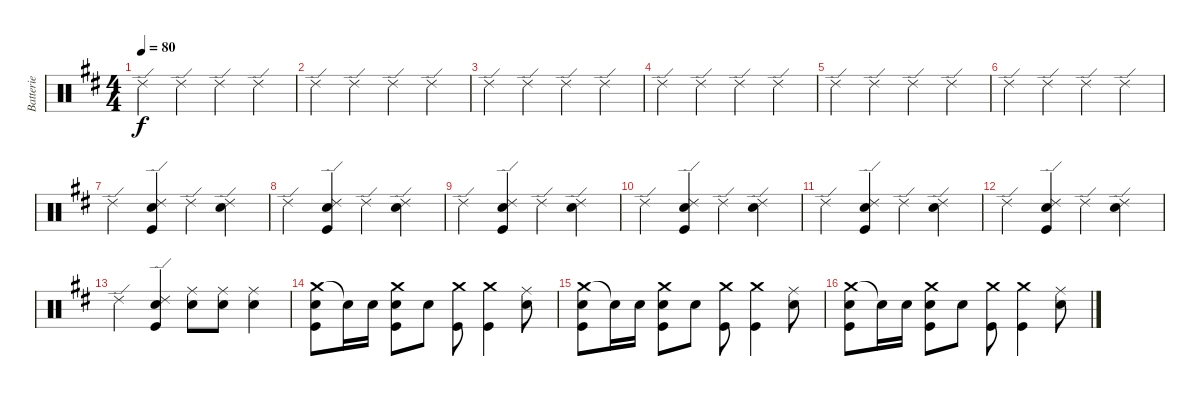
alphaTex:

\track ("Batterie" "Batterie") {instrument percussion}
\staff {score}
\articulation defaults
\ts (4 4)
\tempo 80
\clef neutral
\ks d "Ride (edge) 2".4{dy f} "Ride (edge) 2".4 "Ride (edge) 2".4 "Ride (edge) 2".4
|
"Ride (edge) 2".4 "Ride (edge) 2".4 "Ride (edge) 2".4 "Ride (edge) 2".4 |
"Ride (edge) 2".4 "Ride (edge) 2".4 "Ride (edge) 2".4 "Ride (edge) 2".4 |
"Ride (edge) 2".4 "Ride (edge) 2".4 "Ride (edge) 2".4 "Ride (edge) 2".4 |
"Ride (edge) 2".4 "Ride (edge) 2".4 "Ride (edge) 2".4 "Ride (edge) 2".4 |
"Ride (edge) 2".4 "Ride (edge) 2".4 "Ride (edge) 2".4 "Ride (edge) 2".4 |
"Ride (edge) 2".4 ("Ride (edge) 2" "Electric Snare (hit)" "Kick (hit)").4 "Ride (edge) 2".4 ("Ride (edge) 2" "Electric Snare (hit)").4 |
"Ride (edge) 2".4 ("Ride (edge) 2" "Electric Snare (hit)" "Kick (hit)").4 "Ride (edge) 2".4 ("Ride (edge) 2" "Electric Snare (hit)").4 |
"Ride (edge) 2".4 ("Ride (edge) 2" "Electric Snare (hit)" "Kick (hit)").4 "Ride (edge) 2".4 ("Ride (edge) 2" "Electric Snare (hit)").4 |
"Ride (edge) 2".4 ("Ride (edge) 2" "Electric Snare (hit)" "Kick (hit)").4 "Ride (edge) 2".4 ("Ride (edge) 2" "Electric Snare (hit)").4 |
"Ride (edge) 2".4 ("Ride (edge) 2" "Electric Snare (hit)" "Kick (hit)").4 "Ride (edge) 2".4 ("Ride (edge) 2" "Electric Snare (hit)").4 |
"Ride (edge) 2".4 ("Ride (edge) 2" "Electric Snare (hit)" "Kick (hit)").4 "Ride (edge) 2".4 ("Ride (edge) 2" "Electric Snare (hit)").4 |
"Ride (edge) 2".4 ("Ride (edge) 2" "Electric Snare (hit)" "Kick (hit)").4 ("Ride (middle)" "Electric Snare (hit)").8 ("Ride (middle)" "Electric Snare (hit)").8 ("Ride (middle)" "Electric Snare (hit)").4 |
("Crash medium (hit)" "Electric Snare (hit)" "Kick (hit)").8 "Electric Snare (hit)"{t}.16 "Electric Snare (hit)".16 ("Crash medium (hit)" "Electric Snare (hit)" "Kick (hit)").8 "Electric Snare (hit)".8 ("Crash medium (hit)" "Kick (hit)").8 ("Crash medium (hit)" "Kick (hit)").4 ("Ride (middle)" "Electric Snare (hit)").8 |
("Crash medium (hit)" "Electric Snare (hit)" "Kick (hit)").8 "Electric Snare (hit)"{t}.16 "Electric Snare (hit)".16 ("Crash medium (hit)" "Electric Snare (hit)" "Kick (hit)").8 "Electric Snare (hit)".8 ("Crash medium (hit)" "Kick (hit)").8 ("Crash medium (hit)" "Kick (hit)").4 ("Ride (middle)" "Electric Snare (hit)").8 |
("Crash medium (hit)" "Electric Snare (hit)" "Kick (hit)").8 "Electric Snare (hit)"{t}.16 "Electric Snare (hit)".16 ("Crash medium (hit)" "Electric Snare (hit)" "Kick (hit)").8 "Electric Snare (hit)".8 ("Crash medium (hit)" "Kick (hit)").8 ("Crash medium (hit)" "Kick (hit)").4 ("Ride (middle)" "Electric Snare (hit)").8
